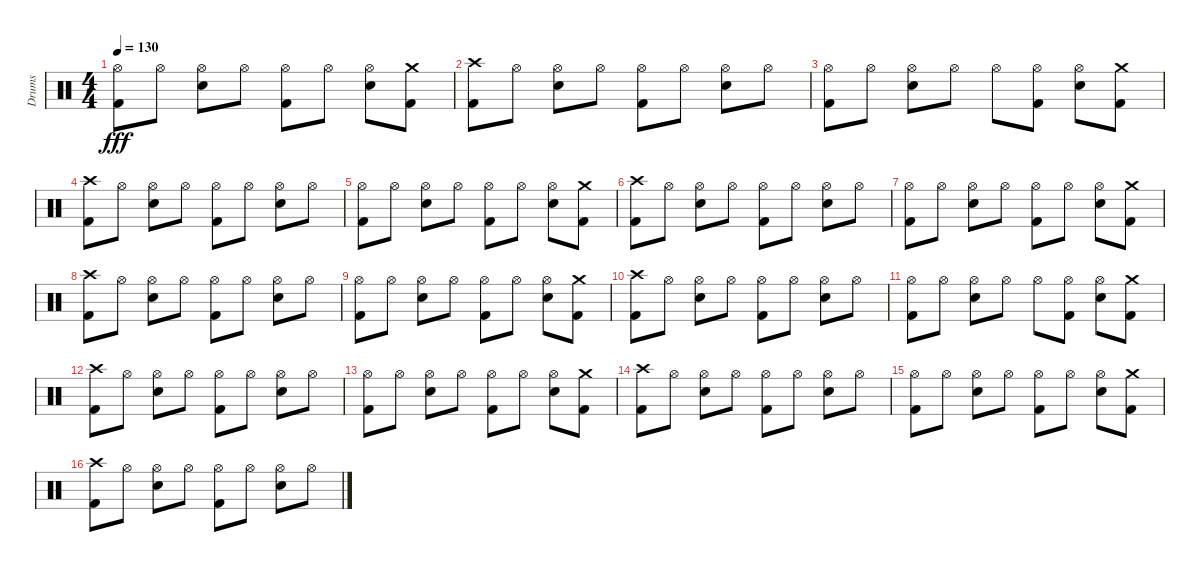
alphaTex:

\track ("Drums" "Drums") {instrument percussion}
\staff {score}
\articulation defaults
\ts (4 4)
\tempo 130
\clef neutral
\ks c
("Hi-Hat (open)" "Kick (hit) 2").8{dy fff} "Hi-Hat (open)".8 ("Hi-Hat (open)" "Electric Snare (hit)").8 "Hi-Hat (open)".8 ("Hi-Hat (open)" "Kick (hit) 2").8 "Hi-Hat (open)".8 ("Hi-Hat (open)" "Electric Snare (hit)").8 ("Crash medium (hit)" "Kick (hit) 2").8 |
("Crash high (hit)" "Kick (hit) 2").8 "Hi-Hat (open)".8 ("Hi-Hat (open)" "Electric Snare (hit)").8 "Hi-Hat (open)".8 ("Hi-Hat (open)" "Kick (hit) 2").8 "Hi-Hat (open)".8 ("Hi-Hat (open)" "Electric Snare (hit)").8 "Hi-Hat (open)".8 |
("Hi-Hat (open)" "Kick (hit) 2").8 "Hi-Hat (open)".8 ("Hi-Hat (open)" "Electric Snare (hit)").8 "Hi-Hat (open)".8 "Hi-Hat (open)".8 ("Kick (hit) 2" "Hi-Hat (open)").8 ("Electric Snare (hit)" "Hi-Hat (open)").8 ("Crash medium (hit)" "Kick (hit) 2").8 |
("Kick (hit) 2" "Crash high (hit)").8 "Hi-Hat (open)".8 ("Electric Snare (hit)" "Hi-Hat (open)").8 "Hi-Hat (open)".8 ("Kick (hit) 2" "Hi-Hat (open)").8 "Hi-Hat (open)".8 ("Electric Snare (hit)" "Hi-Hat (open)").8 "Hi-Hat (open)".8 |
("Hi-Hat (open)" "Kick (hit) 2").8 "Hi-Hat (open)".8 ("Hi-Hat (open)" "Electric Snare (hit)").8 "Hi-Hat (open)".8 ("Hi-Hat (open)" "Kick (hit) 2").8 "Hi-Hat (open)".8 ("Hi-Hat (open)" "Electric Snare (hit)").8 ("Crash medium (hit)" "Kick (hit) 2").8 |
("Crash high (hit)" "Kick (hit) 2").8 "Hi-Hat (open)".8 ("Hi-Hat (open)" "Electric Snare (hit)").8 "Hi-Hat (open)".8 ("Hi-Hat (open)" "Kick (hit) 2").8 "Hi-Hat (open)".8 ("Hi-Hat (open)" "Electric Snare (hit)").8 "Hi-Hat (open)".8 |
("Hi-Hat (open)" "Kick (hit) 2").8 "Hi-Hat (open)".8 ("Hi-Hat (open)" "Electric Snare (hit)").8 "Hi-Hat (open)".8 ("Hi-Hat (open)" "Kick (hit) 2").8 "Hi-Hat (open)".8 ("Hi-Hat (open)" "Electric Snare (hit)").8 ("Crash medium (hit)" "Kick (hit) 2").8 |
("Kick (hit) 2" "Crash high (hit)").8 "Hi-Hat (open)".8 ("Electric Snare (hit)" "Hi-Hat (open)").8 "Hi-Hat (open)".8 ("Kick (hit) 2" "Hi-Hat (open)").8 "Hi-Hat (open)".8 ("Electric Snare (hit)" "Hi-Hat (open)").8 "Hi-Hat (open)".8 |
("Hi-Hat (open)" "Kick (hit) 2").8 "Hi-Hat (open)".8 ("Hi-Hat (open)" "Electric Snare (hit)").8 "Hi-Hat (open)".8 ("Hi-Hat (open)" "Kick (hit) 2").8 "Hi-Hat (open)".8 ("Hi-Hat (open)" "Electric Snare (hit)").8 ("Crash medium (hit)" "Kick (hit) 2").8 |
("Crash high (hit)" "Kick (hit) 2").8 "Hi-Hat (open)".8 ("Hi-Hat (open)" "Electric Snare (hit)").8 "Hi-Hat (open)".8 ("Hi-Hat (open)" "Kick (hit) 2").8 "Hi-Hat (open)".8 ("Hi-Hat (open)" "Electric Snare (hit)").8 "Hi-Hat (open)".8 |
("Hi-Hat (open)" "Kick (hit) 2").8 "Hi-Hat (open)".8 ("Hi-Hat (open)" "Electric Snare (hit)").8 "Hi-Hat (open)".8 "Hi-Hat (open)".8 ("Kick (hit) 2" "Hi-Hat (open)").8 ("Hi-Hat (open)" "Electric Snare (hit)").8 ("Kick (hit) 2" "Crash medium (hit)").8 |
("Kick (hit) 2" "Crash high (hit)").8 "Hi-Hat (open)".8 ("Electric Snare (hit)" "Hi-Hat (open)").8 "Hi-Hat (open)".8 ("Kick (hit) 2" "Hi-Hat (open)").8 "Hi-Hat (open)".8 ("Electric Snare (hit)" "Hi-Hat (open)").8 "Hi-Hat (open)".8 |
("Hi-Hat (open)" "Kick (hit) 2").8 "Hi-Hat (open)".8 ("Hi-Hat (open)" "Electric Snare (hit)").8 "Hi-Hat (open)".8 ("Hi-Hat (open)" "Kick (hit) 2").8 "Hi-Hat (open)".8 ("Hi-Hat (open)" "Electric Snare (hit)").8 ("Crash medium (hit)" "Kick (hit) 2").8 |
("Crash high (hit)" "Kick (hit) 2").8{volume 6} "Hi-Hat (open)".8 ("Hi-Hat (open)" "Electric Snare (hit)").8 "Hi-Hat (open)".8 ("Hi-Hat (open)" "Kick (hit) 2").8 "Hi-Hat (open)".8 ("Hi-Hat (open)" "Electric Snare (hit)").8 "Hi-Hat (open)".8 |
("Hi-Hat (open)" "Kick (hit) 2").8 "Hi-Hat (open)".8 ("Hi-Hat (open)" "Electric Snare (hit)").8 "Hi-Hat (open)".8 ("Hi-Hat (open)" "Kick (hit) 2").8 "Hi-Hat (open)".8 ("Hi-Hat (open)" "Electric Snare (hit)").8 ("Crash medium (hit)" "Kick (hit) 2").8 |
("Kick (hit) 2" "Crash high (hit)").8 "Hi-Hat (open)".8 ("Electric Snare (hit)" "Hi-Hat (open)").8 "Hi-Hat (open)".8 ("Kick (hit) 2" "Hi-Hat (open)").8 "Hi-Hat (open)".8 ("Electric Snare (hit)" "Hi-Hat (open)").8 "Hi-Hat (open)".8
